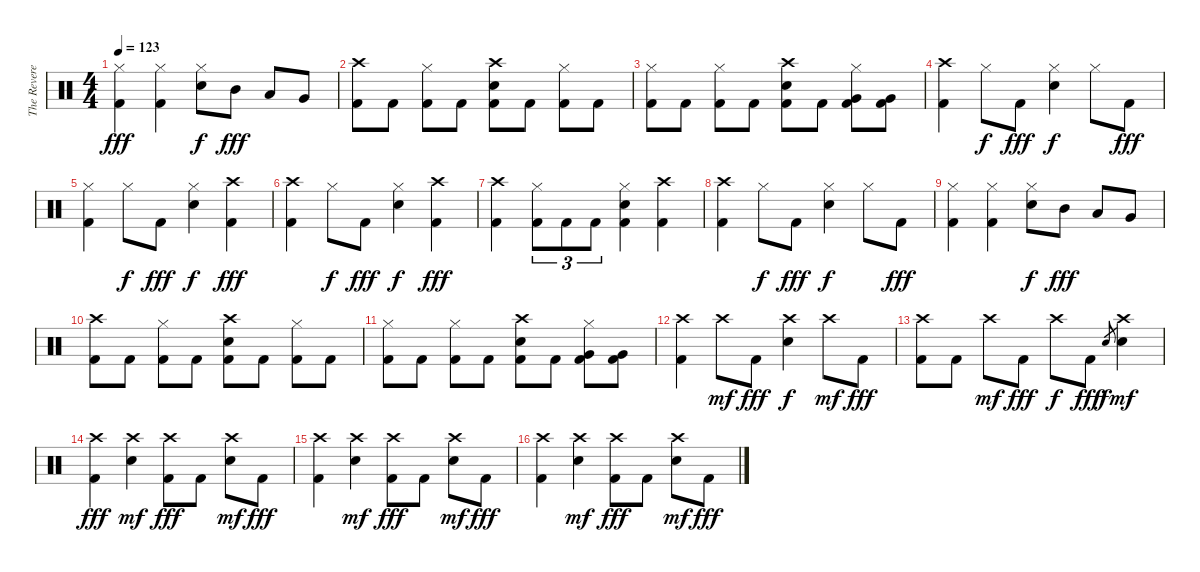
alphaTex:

\track ("The Reverend" "The Revere") {instrument percussion}
\staff {score}
\articulation defaults
\ts (4 4)
\tempo 123
\clef neutral
\ks c
("Hi-Hat (closed)" "Kick (hit) 2").4{dy fff} ("Hi-Hat (closed)" "Kick (hit) 2").4 ("Hi-Hat (closed)" "Electric Snare (hit)").8{dy f} "Mid Tom (hit)".8{dy fff} "Low Tom (hit)".8 "Very Low Tom (hit)".8 |
("Crash high (hit)" "Kick (hit) 2").8 "Kick (hit) 2".8 ("Hi-Hat (closed)" "Kick (hit) 2").8 "Kick (hit) 2".8 ("Crash high (hit)" "Electric Snare (hit)" "Kick (hit) 2").8 "Kick (hit) 2".8 ("Hi-Hat (closed)" "Kick (hit) 2").8 "Kick (hit) 2".8 |
("Hi-Hat (closed)" "Kick (hit) 2").8 "Kick (hit) 2".8 ("Hi-Hat (closed)" "Kick (hit) 2").8 "Kick (hit) 2".8 ("Crash high (hit)" "Electric Snare (hit)" "Kick (hit) 2").8 "Kick (hit) 2".8 ("Hi-Hat (closed)" "Very Low Tom (hit)" "Kick (hit) 2").8 ("Very Low Tom (hit)" "Kick (hit) 2").8 |
("Crash high (hit)" "Kick (hit) 2").4 "Hi-Hat (closed)".8{dy f} "Kick (hit) 2".8{dy fff} ("Hi-Hat (closed)" "Electric Snare (hit)").4{dy f} "Hi-Hat (closed)".8 "Kick (hit) 2".8{dy fff} |
("Hi-Hat (closed)" "Kick (hit) 2").4 "Hi-Hat (closed)".8{dy f} "Kick (hit) 2".8{dy fff} ("Hi-Hat (closed)" "Electric Snare (hit)").4{dy f} ("Crash high (hit)" "Kick (hit) 2").4{dy fff} |
("Crash high (hit)" "Kick (hit) 2").4 "Hi-Hat (closed)".8{dy f} "Kick (hit) 2".8{dy fff} ("Hi-Hat (closed)" "Electric Snare (hit)").4{dy f} ("Crash high (hit)" "Kick (hit) 2").4{dy fff} |
("Crash high (hit)" "Kick (hit) 2").4 ("Hi-Hat (closed)" "Kick (hit) 2").8{tu (3 2)} "Kick (hit) 2".8{tu (3 2)} "Kick (hit) 2".8{tu (3 2)} ("Hi-Hat (closed)" "Electric Snare (hit)" "Kick (hit) 2").4 ("Crash high (hit)" "Kick (hit) 2").4 |
("Crash high (hit)" "Kick (hit) 2").4 "Hi-Hat (closed)".8{dy f} "Kick (hit) 2".8{dy fff} ("Hi-Hat (closed)" "Electric Snare (hit)").4{dy f} "Hi-Hat (closed)".8 "Kick (hit) 2".8{dy fff} |
("Hi-Hat (closed)" "Kick (hit) 2").4 ("Hi-Hat (closed)" "Kick (hit) 2").4 ("Hi-Hat (closed)" "Electric Snare (hit)").8{dy f} "Mid Tom (hit)".8{dy fff} "Low Tom (hit)".8 "Very Low Tom (hit)".8 |
("Crash high (hit)" "Kick (hit) 2").8 "Kick (hit) 2".8 ("Hi-Hat (closed)" "Kick (hit) 2").8 "Kick (hit) 2".8 ("Crash high (hit)" "Electric Snare (hit)" "Kick (hit) 2").8 "Kick (hit) 2".8 ("Hi-Hat (closed)" "Kick (hit) 2").8 "Kick (hit) 2".8 |
("Hi-Hat (closed)" "Kick (hit) 2").8 "Kick (hit) 2".8 ("Hi-Hat (closed)" "Kick (hit) 2").8 "Kick (hit) 2".8 ("Crash high (hit)" "Electric Snare (hit)" "Kick (hit) 2").8 "Kick (hit) 2".8 ("Hi-Hat (closed)" "Very Low Tom (hit)" "Kick (hit) 2").8 ("Very Low Tom (hit)" "Kick (hit) 2").8 |
("Crash high (hit)" "Kick (hit) 2").4 "Crash high (hit)".8{dy mf} "Kick (hit) 2".8{dy fff} ("Crash high (hit)" "Electric Snare (hit)").4{dy f} "Crash high (hit)".8{dy mf} "Kick (hit) 2".8{dy fff} |
("Crash high (hit)" "Kick (hit) 2").8 "Kick (hit) 2".8 "Crash high (hit)".8{dy mf} "Kick (hit) 2".8{dy fff} "Crash high (hit)".8{dy f} "Kick (hit) 2".8{dy fff} "Electric Snare (hit)".8{gr dy f} ("Crash high (hit)" "Electric Snare (hit)").4{dy mf} |
("Crash high (hit)" "Kick (hit) 2").4{dy fff} ("Crash high (hit)" "Electric Snare (hit)").4{dy mf} ("Crash high (hit)" "Kick (hit) 2").8{dy fff} "Kick (hit) 2".8 ("Crash high (hit)" "Electric Snare (hit)").8{dy mf} "Kick (hit) 2".8{dy fff} |
("Crash high (hit)" "Kick (hit) 2").4 ("Crash high (hit)" "Electric Snare (hit)").4{dy mf} ("Crash high (hit)" "Kick (hit) 2").8{dy fff} "Kick (hit) 2".8 ("Crash high (hit)" "Electric Snare (hit)").8{dy mf} "Kick (hit) 2".8{dy fff} |
("Crash high (hit)" "Kick (hit) 2").4 ("Crash high (hit)" "Electric Snare (hit)").4{dy mf} ("Crash high (hit)" "Kick (hit) 2").8{dy fff} "Kick (hit) 2".8 ("Crash high (hit)" "Electric Snare (hit)").8{dy mf} "Kick (hit) 2".8{dy fff}
